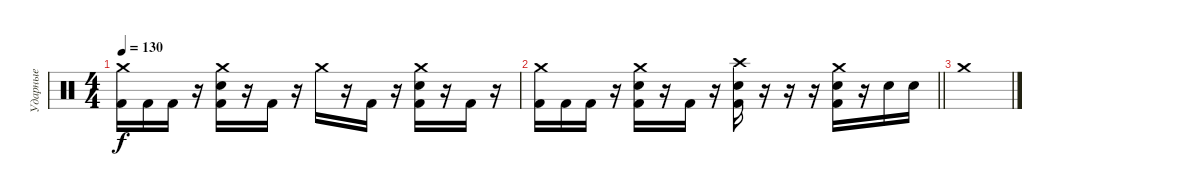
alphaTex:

\track ("Ударные" "Ударные") {instrument percussion}
\staff {score}
\articulation defaults
\ts (4 4)
\tempo 130
\clef neutral
\ks c
("Crash medium (hit)" "Kick (hit) 2").16{dy f} "Kick (hit) 2".16 "Kick (hit) 2".16 r.16 ("Crash medium (hit)" "Snare (hit) 2" "Kick (hit) 2").16 r.16 "Kick (hit) 2".16 r.16 "Crash medium (hit)".16 r.16 "Kick (hit) 2".16 r.16 ("Crash medium (hit)" "Snare (hit) 2" "Kick (hit) 2").16 r.16 "Kick (hit) 2".16 r.16 |
\barLineRight lightlight
("Crash medium (hit)" "Kick (hit) 2").16 "Kick (hit) 2".16 "Kick (hit) 2".16 r.16 ("Crash medium (hit)" "Snare (hit) 2" "Kick (hit) 2").16 r.16 "Kick (hit) 2".16 r.16 ("Crash high (hit)" "Snare (hit) 2" "Kick (hit) 2").16 r.16 r.16 r.16 ("Crash medium (hit)" "Snare (hit) 2" "Kick (hit) 2").16 r.16 "Snare (hit) 2".16 "Snare (hit) 2".16 |
"Crash medium (hit)".1
